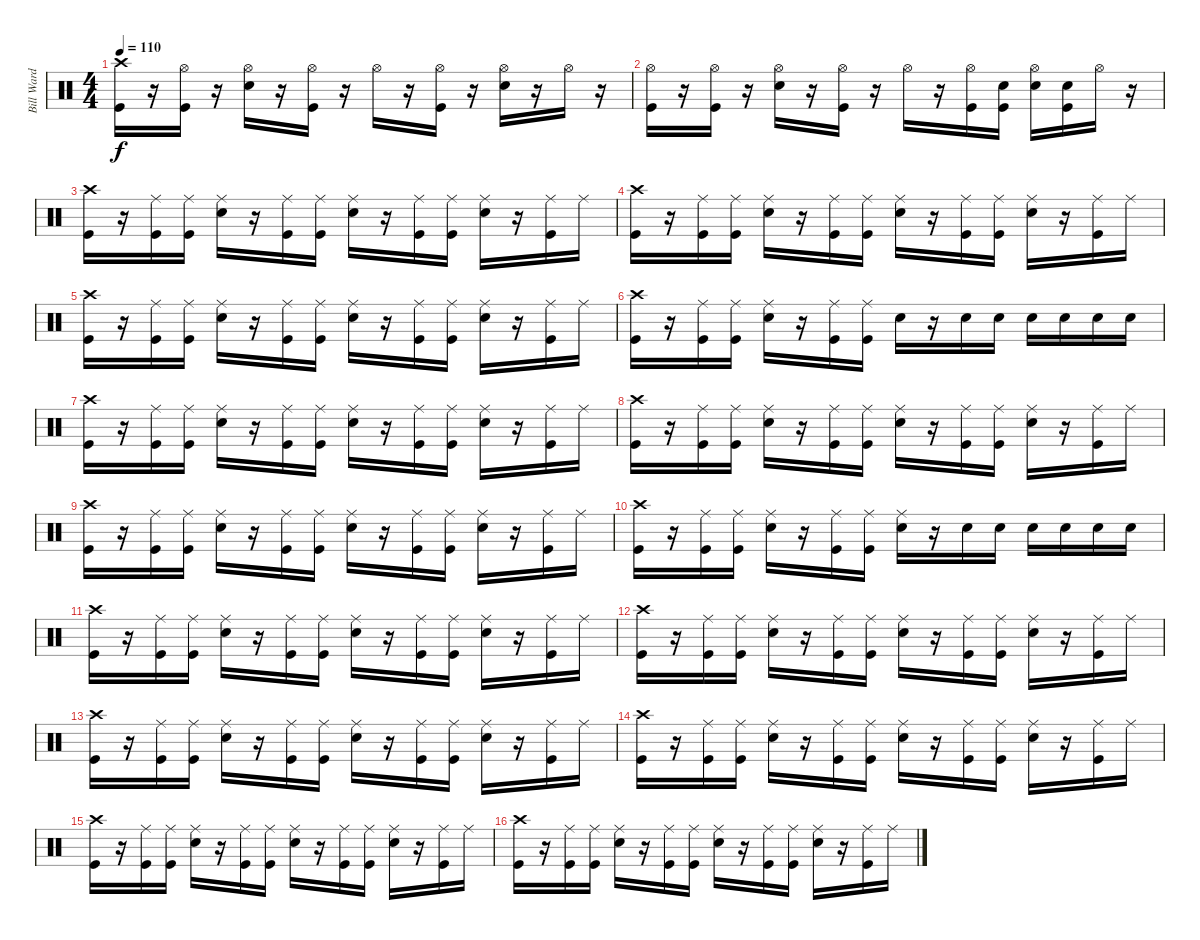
\track ("Bill Ward" "Bill Ward") {instrument percussion}
\staff {score}
\articulation defaults
\ts (4 4)
\tempo 110
\clef neutral
\ks c
("Kick (hit)" "Crash high (hit)").16{dy f} r.16 ("Kick (hit)" "Hi-Hat (open)").16 r.16 ("Snare (hit) 2" "Hi-Hat (open)").16 r.16 ("Kick (hit)" "Hi-Hat (open)").16 r.16 "Hi-Hat (open)".16 r.16 ("Kick (hit)" "Hi-Hat (open)").16 r.16 ("Snare (hit) 2" "Hi-Hat (open)").16 r.16 "Hi-Hat (open)".16 r.16 |
("Kick (hit)" "Hi-Hat (open)").16 r.16 ("Kick (hit)" "Hi-Hat (open)").16 r.16 ("Snare (hit) 2" "Hi-Hat (open)").16 r.16 ("Kick (hit)" "Hi-Hat (open)").16 r.16 "Hi-Hat (open)".16 r.16 ("Kick (hit)" "Hi-Hat (open)").16 ("Snare (hit)" "Kick (hit)").16 ("Snare (hit) 2" "Hi-Hat (open)").16 ("Snare (hit)" "Kick (hit)").16 "Hi-Hat (open)".16 r.16 |
("Kick (hit)" "Crash high (hit)").16 r.16 ("Kick (hit)" "Ride (middle)").16 ("Kick (hit)" "Ride (middle)").16 ("Ride (middle)" "Snare (hit) 2").16 r.16 ("Kick (hit)" "Ride (middle)").16 ("Kick (hit)" "Ride (middle)").16 ("Ride (middle)" "Snare (hit) 2").16 r.16 ("Kick (hit)" "Ride (middle)").16 ("Kick (hit)" "Ride (middle)").16 ("Ride (middle)" "Snare (hit) 2").16 r.16 ("Kick (hit)" "Ride (middle)").16 "Ride (middle)".16 |
("Crash high (hit)" "Kick (hit)").16 r.16 ("Kick (hit)" "Ride (middle)").16 ("Kick (hit)" "Ride (middle)").16 ("Ride (middle)" "Snare (hit) 2").16 r.16 ("Kick (hit)" "Ride (middle)").16 ("Kick (hit)" "Ride (middle)").16 ("Ride (middle)" "Snare (hit) 2").16 r.16 ("Kick (hit)" "Ride (middle)").16 ("Kick (hit)" "Ride (middle)").16 ("Ride (middle)" "Snare (hit) 2").16 r.16 ("Kick (hit)" "Ride (middle)").16 "Ride (middle)".16 |
("Crash high (hit)" "Kick (hit)").16 r.16 ("Kick (hit)" "Ride (middle)").16 ("Kick (hit)" "Ride (middle)").16 ("Ride (middle)" "Snare (hit) 2").16 r.16 ("Kick (hit)" "Ride (middle)").16 ("Kick (hit)" "Ride (middle)").16 ("Ride (middle)" "Snare (hit) 2").16 r.16 ("Kick (hit)" "Ride (middle)").16 ("Kick (hit)" "Ride (middle)").16 ("Ride (middle)" "Snare (hit) 2").16 r.16 ("Kick (hit)" "Ride (middle)").16 "Ride (middle)".16 |
("Crash high (hit)" "Kick (hit)").16 r.16 ("Kick (hit)" "Ride (middle)").16 ("Kick (hit)" "Ride (middle)").16 ("Ride (middle)" "Snare (hit) 2").16 r.16 ("Kick (hit)" "Ride (middle)").16 ("Kick (hit)" "Ride (middle)").16 "Snare (hit) 2".16 r.16 "Snare (hit) 2".16 "Snare (hit) 2".16 "Snare (hit) 2".16 "Snare (hit) 2".16 "Snare (hit) 2".16 "Snare (hit) 2".16 |
("Kick (hit)" "Crash high (hit)").16 r.16 ("Kick (hit)" "Ride (middle)").16 ("Kick (hit)" "Ride (middle)").16 ("Ride (middle)" "Snare (hit) 2").16 r.16 ("Kick (hit)" "Ride (middle)").16 ("Kick (hit)" "Ride (middle)").16 ("Ride (middle)" "Snare (hit) 2").16 r.16 ("Kick (hit)" "Ride (middle)").16 ("Kick (hit)" "Ride (middle)").16 ("Ride (middle)" "Snare (hit) 2").16 r.16 ("Kick (hit)" "Ride (middle)").16 "Ride (middle)".16 |
("Kick (hit)" "Crash high (hit)").16 r.16 ("Kick (hit)" "Ride (middle)").16 ("Kick (hit)" "Ride (middle)").16 ("Ride (middle)" "Snare (hit) 2").16 r.16 ("Kick (hit)" "Ride (middle)").16 ("Kick (hit)" "Ride (middle)").16 ("Ride (middle)" "Snare (hit) 2").16 r.16 ("Kick (hit)" "Ride (middle)").16 ("Kick (hit)" "Ride (middle)").16 ("Ride (middle)" "Snare (hit) 2").16 r.16 ("Kick (hit)" "Ride (middle)").16 "Ride (middle)".16 |
("Crash high (hit)" "Kick (hit)").16 r.16 ("Kick (hit)" "Ride (middle)").16 ("Kick (hit)" "Ride (middle)").16 ("Ride (middle)" "Snare (hit) 2").16 r.16 ("Kick (hit)" "Ride (middle)").16 ("Kick (hit)" "Ride (middle)").16 ("Ride (middle)" "Snare (hit) 2").16 r.16 ("Kick (hit)" "Ride (middle)").16 ("Kick (hit)" "Ride (middle)").16 ("Ride (middle)" "Snare (hit) 2").16 r.16 ("Kick (hit)" "Ride (middle)").16 "Ride (middle)".16 |
("Kick (hit)" "Crash high (hit)").16 r.16 ("Kick (hit)" "Ride (middle)").16 ("Kick (hit)" "Ride (middle)").16 ("Ride (middle)" "Snare (hit) 2").16 r.16 ("Kick (hit)" "Ride (middle)").16 ("Kick (hit)" "Ride (middle)").16 ("Ride (middle)" "Snare (hit) 2").16 r.16 "Snare (hit) 2".16 "Snare (hit) 2".16 "Snare (hit) 2".16 "Snare (hit) 2".16 "Snare (hit) 2".16 "Snare (hit) 2".16 |
("Kick (hit)" "Crash high (hit)").16 r.16 ("Kick (hit)" "Ride (middle)").16 ("Kick (hit)" "Ride (middle)").16 ("Ride (middle)" "Snare (hit) 2").16 r.16 ("Kick (hit)" "Ride (middle)").16 ("Kick (hit)" "Ride (middle)").16 ("Ride (middle)" "Snare (hit) 2").16 r.16 ("Kick (hit)" "Ride (middle)").16 ("Kick (hit)" "Ride (middle)").16 ("Ride (middle)" "Snare (hit) 2").16 r.16 ("Kick (hit)" "Ride (middle)").16 "Ride (middle)".16 |
("Kick (hit)" "Crash high (hit)").16 r.16 ("Kick (hit)" "Ride (middle)").16 ("Kick (hit)" "Ride (middle)").16 ("Ride (middle)" "Snare (hit) 2").16 r.16 ("Kick (hit)" "Ride (middle)").16 ("Kick (hit)" "Ride (middle)").16 ("Ride (middle)" "Snare (hit) 2").16 r.16 ("Kick (hit)" "Ride (middle)").16 ("Kick (hit)" "Ride (middle)").16 ("Ride (middle)" "Snare (hit) 2").16 r.16 ("Kick (hit)" "Ride (middle)").16 "Ride (middle)".16 |
("Kick (hit)" "Crash high (hit)").16 r.16 ("Kick (hit)" "Ride (middle)").16 ("Kick (hit)" "Ride (middle)").16 ("Ride (middle)" "Snare (hit) 2").16 r.16 ("Kick (hit)" "Ride (middle)").16 ("Kick (hit)" "Ride (middle)").16 ("Ride (middle)" "Snare (hit) 2").16 r.16 ("Kick (hit)" "Ride (middle)").16 ("Kick (hit)" "Ride (middle)").16 ("Ride (middle)" "Snare (hit) 2").16 r.16 ("Kick (hit)" "Ride (middle)").16 "Ride (middle)".16 |
("Kick (hit)" "Crash high (hit)").16 r.16 ("Kick (hit)" "Ride (middle)").16 ("Kick (hit)" "Ride (middle)").16 ("Ride (middle)" "Snare (hit) 2").16 r.16 ("Kick (hit)" "Ride (middle)").16 ("Kick (hit)" "Ride (middle)").16 ("Ride (middle)" "Snare (hit) 2").16 r.16 ("Kick (hit)" "Ride (middle)").16 ("Kick (hit)" "Ride (middle)").16 ("Ride (middle)" "Snare (hit) 2").16 r.16 ("Kick (hit)" "Ride (middle)").16 "Ride (middle)".16 |
("Kick (hit)" "Crash high (hit)").16 r.16 ("Kick (hit)" "Ride (middle)").16 ("Kick (hit)" "Ride (middle)").16 ("Ride (middle)" "Snare (hit) 2").16 r.16 ("Kick (hit)" "Ride (middle)").16 ("Kick (hit)" "Ride (middle)").16 ("Ride (middle)" "Snare (hit) 2").16 r.16 ("Kick (hit)" "Ride (middle)").16 ("Kick (hit)" "Ride (middle)").16 ("Ride (middle)" "Snare (hit) 2").16 r.16 ("Kick (hit)" "Ride (middle)").16 "Ride (middle)".16 |
("Kick (hit)" "Crash high (hit)").16 r.16 ("Kick (hit)" "Ride (middle)").16 ("Kick (hit)" "Ride (middle)").16 ("Ride (middle)" "Snare (hit) 2").16 r.16 ("Kick (hit)" "Ride (middle)").16 ("Kick (hit)" "Ride (middle)").16 ("Ride (middle)" "Snare (hit) 2").16 r.16 ("Kick (hit)" "Ride (middle)").16 ("Kick (hit)" "Ride (middle)").16 ("Ride (middle)" "Snare (hit) 2").16 r.16 ("Kick (hit)" "Ride (middle)").16 "Ride (middle)".16
